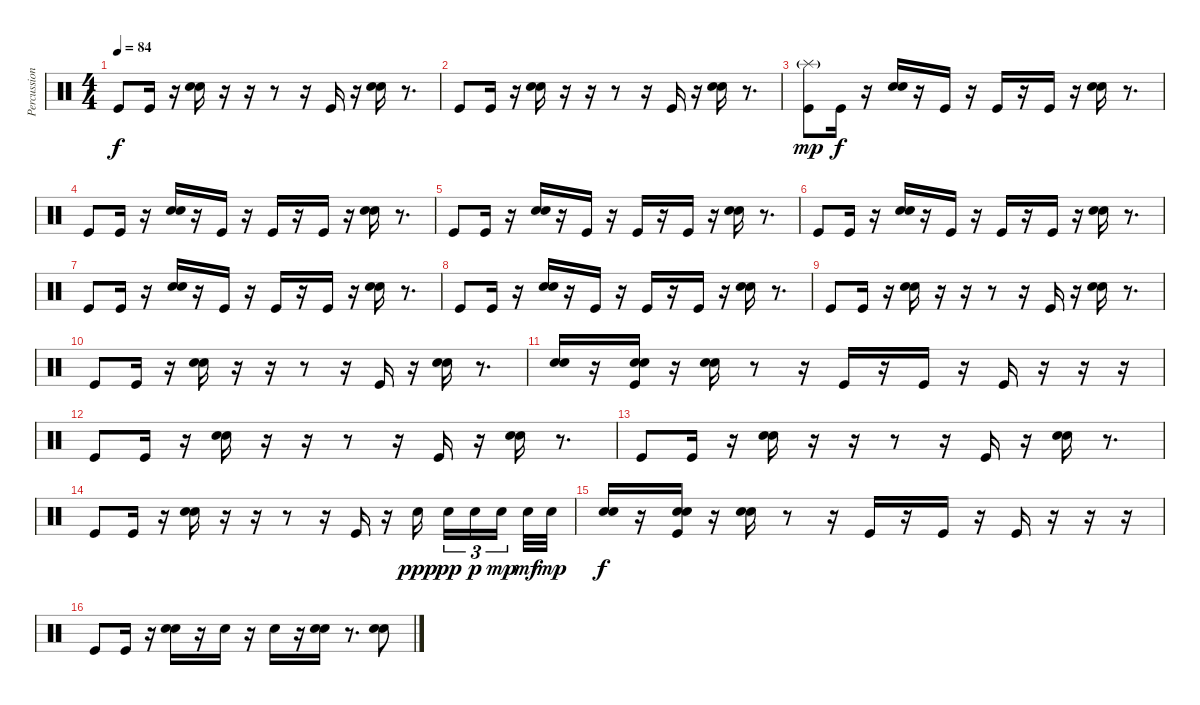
\track ("Percussions" "Percussion") {instrument percussion}
\staff {score}
\articulation defaults
\ts (4 4)
\tempo 84
\clef neutral
\ks c "Kick (hit)".8{dy f} "Kick (hit)".16
r.16 ("Electric Snare (hit)" "Electric Snare (hit)").16{bd 240} r.16 r.16 r.8 r.16 "Kick (hit)".16 r.16 ("Electric Snare (hit)" "Electric Snare (hit)").16{bd 240} r.8{d} |
"Kick (hit)".8 "Kick (hit)".16 r.16 ("Electric Snare (hit)" "Electric Snare (hit)").16{bd 240} r.16 r.16 r.8 r.16 "Kick (hit)".16 r.16 ("Electric Snare (hit)" "Electric Snare (hit)").16{bd 240} r.8{d} |
("Splash (hit)"{g} "Kick (hit)").8{dy mp} "Kick (hit)".16{dy f} r.16 ("Electric Snare (hit)" "Electric Snare (hit)").16{bd 240} r.16 "Kick (hit)".16 r.16 "Kick (hit)".16 r.16 "Kick (hit)".16 r.16 ("Electric Snare (hit)" "Electric Snare (hit)").16{bd 240} r.8{d} |
"Kick (hit)".8 "Kick (hit)".16 r.16 ("Electric Snare (hit)" "Electric Snare (hit)").16{bd 240} r.16 "Kick (hit)".16 r.16 "Kick (hit)".16 r.16 "Kick (hit)".16 r.16 ("Electric Snare (hit)" "Electric Snare (hit)").16{bd 240} r.8{d} |
"Kick (hit)".8 "Kick (hit)".16 r.16 ("Electric Snare (hit)" "Electric Snare (hit)").16{bd 240} r.16 "Kick (hit)".16 r.16 "Kick (hit)".16 r.16 "Kick (hit)".16 r.16 ("Electric Snare (hit)" "Electric Snare (hit)").16{bd 240} r.8{d} |
"Kick (hit)".8 "Kick (hit)".16 r.16 ("Electric Snare (hit)" "Electric Snare (hit)").16{bd 240} r.16 "Kick (hit)".16 r.16 "Kick (hit)".16 r.16 "Kick (hit)".16 r.16 ("Electric Snare (hit)" "Electric Snare (hit)").16{bd 240} r.8{d} |
"Kick (hit)".8 "Kick (hit)".16 r.16 ("Electric Snare (hit)" "Electric Snare (hit)").16{bd 240} r.16 "Kick (hit)".16 r.16 "Kick (hit)".16 r.16 "Kick (hit)".16 r.16 ("Electric Snare (hit)" "Electric Snare (hit)").16{bd 240} r.8{d} |
"Kick (hit)".8 "Kick (hit)".16 r.16 ("Electric Snare (hit)" "Electric Snare (hit)").16{bd 240} r.16 "Kick (hit)".16 r.16 "Kick (hit)".16 r.16 "Kick (hit)".16 r.16 ("Electric Snare (hit)" "Electric Snare (hit)").16{bd 240} r.8{d} |
"Kick (hit)".8 "Kick (hit)".16 r.16 ("Electric Snare (hit)" "Electric Snare (hit)").16{bd 240} r.16 r.16 r.8 r.16 "Kick (hit)".16 r.16 ("Electric Snare (hit)" "Electric Snare (hit)").16{bd 240} r.8{d} |
"Kick (hit)".8 "Kick (hit)".16 r.16 ("Electric Snare (hit)" "Electric Snare (hit)").16{bd 240} r.16 r.16 r.8 r.16 "Kick (hit)".16 r.16 ("Electric Snare (hit)" "Electric Snare (hit)").16{bd 240} r.8{d} |
("Electric Snare (hit)" "Electric Snare (hit)").16{bd 240} r.16 ("Snare (hit) 2" "Electric Snare (hit)" "Kick (hit)").16 r.16 ("Electric Snare (hit)" "Electric Snare (hit)").16 r.8 r.16 "Kick (hit)".16 r.16 "Kick (hit)".16 r.16 "Kick (hit)".16 r.16 r.16 r.16 |
"Kick (hit)".8 "Kick (hit)".16 r.16 ("Electric Snare (hit)" "Electric Snare (hit)").16{bd 240} r.16 r.16 r.8 r.16 "Kick (hit)".16 r.16 ("Electric Snare (hit)" "Electric Snare (hit)").16{bd 240} r.8{d} |
"Kick (hit)".8 "Kick (hit)".16 r.16 ("Electric Snare (hit)" "Electric Snare (hit)").16{bd 240} r.16 r.16 r.8 r.16 "Kick (hit)".16 r.16 ("Electric Snare (hit)" "Electric Snare (hit)").16{bd 240} r.8{d} |
"Kick (hit)".8 "Kick (hit)".16 r.16 ("Electric Snare (hit)" "Electric Snare (hit)").16{bd 240} r.16 r.16 r.8 r.16 "Kick (hit)".16 r.16 "Electric Snare (hit)".16{dy ppp} "Electric Snare (hit)".16{tu (3 2) dy pp} "Electric Snare (hit)".16{tu (3 2) dy p} "Electric Snare (hit)".16{tu (3 2) dy mp} "Electric Snare (hit)".32{dy mf} "Electric Snare (hit)".32{dy mp} |
("Electric Snare (hit)" "Electric Snare (hit)").16{bd 240 dy f} r.16 ("Snare (hit) 2" "Electric Snare (hit)" "Kick (hit)").16 r.16 ("Electric Snare (hit)" "Electric Snare (hit)").16 r.8 r.16 "Kick (hit)".16 r.16 "Kick (hit)".16 r.16 "Kick (hit)".16 r.16 r.16 r.16 |
"Kick (hit)".8 "Kick (hit)".16 r.16 ("Electric Snare (hit)" "Electric Snare (hit)").16{bd 240} r.16 "Electric Snare (hit)".16 r.16 "Electric Snare (hit)".16 r.16 ("Electric Snare (hit)" "Electric Snare (hit)").16{bd 240} r.8{d} ("Snare (hit) 2" "Electric Snare (hit)").8
